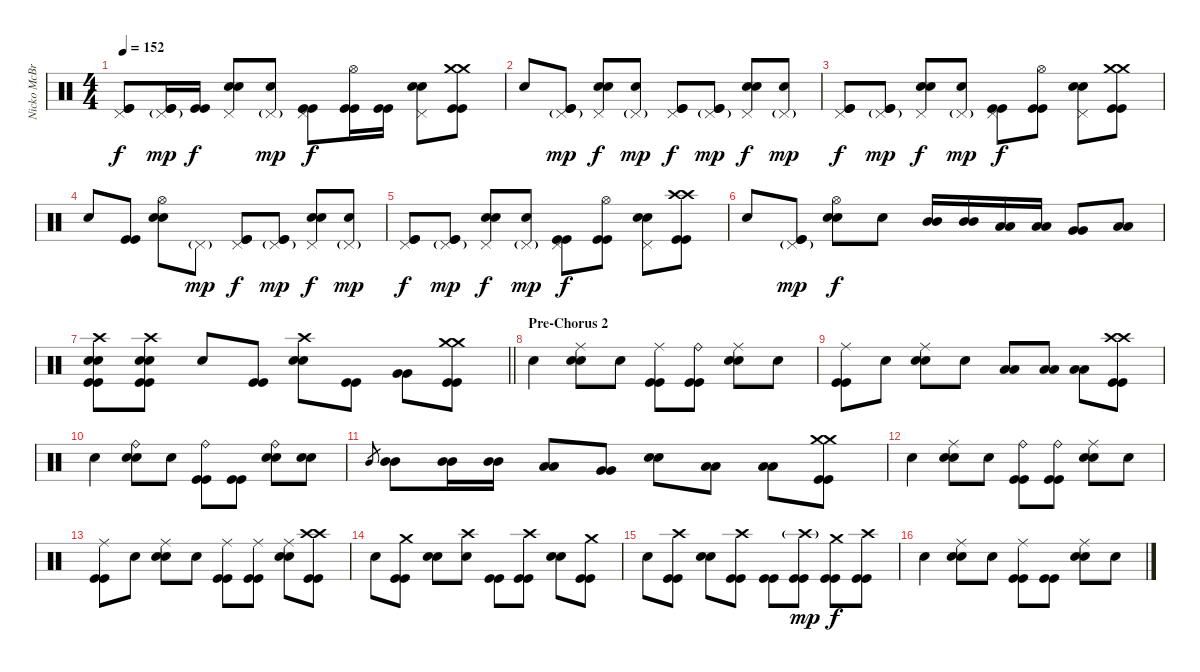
\track ("Nicko McBrain" "Nicko McBr") {instrument percussion}
\staff {score}
\articulation defaults
\ts (4 4)
\tempo 152
\clef neutral
\ks c
("Pedal Hi-Hat (hit)" "Kick (hit)" "Kick (hit)").8{dy f} ("Pedal Hi-Hat (hit)"{g} "Kick (hit)" "Kick (hit)").16{dy mp} ("Kick (hit)" "Kick (hit)").16{dy f} ("Pedal Hi-Hat (hit)" "Electric Snare (hit)" "Electric Snare (hit)").8 ("Pedal Hi-Hat (hit)"{g} "Snare (hit)").8{dy mp} ("Pedal Hi-Hat (hit)" "Kick (hit)" "Kick (hit)").8{dy f} ("Hi-Hat (open)" "Kick (hit)" "Kick (hit)").16 ("Kick (hit)" "Kick (hit)").16 ("Pedal Hi-Hat (hit)" "Electric Snare (hit)" "Electric Snare (hit)").8 ("Crash medium (hit)" "Crash medium (hit)" "Kick (hit)" "Kick (hit)").8 |
"Snare (hit)".8 ("Pedal Hi-Hat (hit)"{g} "Kick (hit)" "Kick (hit)").8{dy mp} ("Pedal Hi-Hat (hit)" "Electric Snare (hit)" "Electric Snare (hit)").8{dy f} ("Pedal Hi-Hat (hit)"{g} "Snare (hit)").8{dy mp} ("Pedal Hi-Hat (hit)" "Kick (hit)" "Kick (hit)").8{dy f} ("Pedal Hi-Hat (hit)"{g} "Kick (hit)" "Kick (hit)").8{dy mp} ("Pedal Hi-Hat (hit)" "Electric Snare (hit)" "Electric Snare (hit)").8{dy f} ("Pedal Hi-Hat (hit)"{g} "Snare (hit)").8{dy mp} |
("Pedal Hi-Hat (hit)" "Kick (hit)" "Kick (hit)").8{dy f} ("Pedal Hi-Hat (hit)"{g} "Kick (hit)" "Kick (hit)").8{dy mp} ("Pedal Hi-Hat (hit)" "Electric Snare (hit)" "Electric Snare (hit)").8{dy f} ("Pedal Hi-Hat (hit)"{g} "Snare (hit)").8{dy mp} ("Pedal Hi-Hat (hit)" "Kick (hit)" "Kick (hit)").8{dy f} ("Hi-Hat (open)" "Kick (hit)" "Kick (hit)").8 ("Pedal Hi-Hat (hit)" "Electric Snare (hit)" "Electric Snare (hit)").8 ("Crash medium (hit)" "Crash medium (hit)" "Kick (hit)" "Kick (hit)").8 |
"Snare (hit)".8 ("Kick (hit)" "Kick (hit)").8 ("Hi-Hat (open)" "Electric Snare (hit)" "Electric Snare (hit)").8 "Pedal Hi-Hat (hit)"{g}.8{dy mp} ("Pedal Hi-Hat (hit)" "Kick (hit)" "Kick (hit)").8{dy f} ("Pedal Hi-Hat (hit)"{g} "Kick (hit)" "Kick (hit)").8{dy mp} ("Pedal Hi-Hat (hit)" "Electric Snare (hit)" "Electric Snare (hit)").8{dy f} ("Pedal Hi-Hat (hit)"{g} "Snare (hit)").8{dy mp} |
("Pedal Hi-Hat (hit)" "Kick (hit)" "Kick (hit)").8{dy f} ("Pedal Hi-Hat (hit)"{g} "Kick (hit)" "Kick (hit)").8{dy mp} ("Pedal Hi-Hat (hit)" "Electric Snare (hit)" "Electric Snare (hit)").8{dy f} ("Pedal Hi-Hat (hit)"{g} "Snare (hit)").8{dy mp} ("Pedal Hi-Hat (hit)" "Kick (hit)" "Kick (hit)").8{dy f} ("Hi-Hat (open)" "Kick (hit)" "Kick (hit)").8 ("Pedal Hi-Hat (hit)" "Electric Snare (hit)" "Electric Snare (hit)").8 ("Crash high (hit)" "Crash high (hit)" "Kick (hit)" "Kick (hit)").8 |
"Snare (hit)".8 ("Pedal Hi-Hat (hit)"{g} "Kick (hit)" "Kick (hit)").8{dy mp} ("Hi-Hat (open)" "Electric Snare (hit)" "Electric Snare (hit)").8{dy f} "Snare (hit)".8 ("Mid Tom (hit)" "Mid Tom (hit)").16 ("Mid Tom (hit)" "Mid Tom (hit)").16 ("Low Tom (hit)" "Low Tom (hit)").16 ("Low Tom (hit)" "Low Tom (hit)").16 ("Very Low Tom (hit)" "Very Low Tom (hit)").8 ("Low Floor Tom (hit)" "Low Floor Tom (hit)").8 |
\barLineRight lightlight
("Crash high (hit)" "Electric Snare (hit)" "Electric Snare (hit)" "Kick (hit)" "Kick (hit)").8 ("Crash high (hit)" "Electric Snare (hit)" "Electric Snare (hit)" "Kick (hit)" "Kick (hit)").8 "Snare (hit)".8 ("Kick (hit)" "Kick (hit)").8 ("Crash high (hit)" "Electric Snare (hit)" "Electric Snare (hit)").8 ("Kick (hit)" "Kick (hit)").8 ("Very Low Tom (hit)" "Very Low Tom (hit)").8 ("Crash medium (hit)" "Crash medium (hit)" "Kick (hit)" "Kick (hit)").8 |
\section ("" "Pre-Chorus 2")
"Snare (hit)".4 ("Ride (middle)" "Electric Snare (hit)" "Electric Snare (hit)").8 "Snare (hit)".8 ("Ride (middle)" "Kick (hit)" "Kick (hit)").8 ("Ride (bell)" "Kick (hit)" "Kick (hit)").8 ("Ride (middle)" "Electric Snare (hit)" "Electric Snare (hit)").8 "Snare (hit)".8 |
("Ride (middle)" "Kick (hit)" "Kick (hit)").8 "Snare (hit)".8 ("Ride (middle)" "Electric Snare (hit)" "Electric Snare (hit)").8 "Snare (hit)".8 ("Low Tom (hit)" "Low Tom (hit)").8 ("Low Tom (hit)" "Low Tom (hit)").8 ("Low Tom (hit)" "Low Tom (hit)").8 ("Crash high (hit)" "Crash high (hit)" "Kick (hit)" "Kick (hit)").8 |
"Snare (hit)".4 ("Ride (bell)" "Electric Snare (hit)" "Electric Snare (hit)").8 "Snare (hit)".8 ("Ride (bell)" "Kick (hit)" "Kick (hit)").8 ("Kick (hit)" "Kick (hit)").8 ("Ride (bell)" "Electric Snare (hit)" "Electric Snare (hit)").8 ("Snare (hit)" "Snare (hit)").8 |
"Mid Tom (hit)".8{gr} ("Mid Tom (hit)" "Mid Tom (hit)").8 ("Mid Tom (hit)" "Mid Tom (hit)").16 ("Mid Tom (hit)" "Mid Tom (hit)").16 ("Low Tom (hit)" "Low Tom (hit)").8 ("Very Low Tom (hit)" "Very Low Tom (hit)").8 ("Electric Snare (hit)" "Electric Snare (hit)").8 ("Low Floor Tom (hit)" "Low Floor Tom (hit)").8 ("Low Floor Tom (hit)" "Low Floor Tom (hit)").8 ("Crash medium (hit)" "Crash medium (hit)" "Kick (hit)" "Kick (hit)").8 |
"Snare (hit)".4 ("Ride (middle)" "Electric Snare (hit)" "Electric Snare (hit)").8 "Snare (hit)".8 ("Ride (bell)" "Kick (hit)" "Kick (hit)").8 ("Ride (bell)" "Kick (hit)" "Kick (hit)").8 ("Ride (middle)" "Electric Snare (hit)" "Electric Snare (hit)").8 "Snare (hit)".8 |
("Ride (middle)" "Kick (hit)" "Kick (hit)").8 "Snare (hit)".8 ("Ride (middle)" "Electric Snare (hit)" "Electric Snare (hit)").8 "Snare (hit)".8 ("Ride (middle)" "Kick (hit)" "Kick (hit)").8 ("Ride (middle)" "Kick (hit)" "Kick (hit)").8 ("Ride (middle)" "Electric Snare (hit)" "Electric Snare (hit)").8 ("Crash high (hit)" "Crash high (hit)" "Kick (hit)" "Kick (hit)").8 |
"Snare (hit)".8 ("Crash medium (hit)" "Kick (hit)" "Kick (hit)").8 ("Electric Snare (hit)" "Electric Snare (hit)").8 ("Crash high (hit)" "Snare (hit)").8 ("Kick (hit)" "Kick (hit)").8 ("Crash high (hit)" "Kick (hit)" "Kick (hit)").8 ("Electric Snare (hit)" "Electric Snare (hit)").8 ("Crash medium (hit)" "Kick (hit)" "Kick (hit)").8 |
"Snare (hit)".8 ("Crash high (hit)" "Kick (hit)" "Kick (hit)").8 ("Electric Snare (hit)" "Electric Snare (hit)").8 ("Crash high (hit)" "Kick (hit)" "Kick (hit)").8 ("Kick (hit)" "Kick (hit)").8 ("Crash high (hit)"{g} "Kick (hit)" "Kick (hit)").8{dy mp} ("Crash medium (hit)" "Kick (hit)" "Kick (hit)").8{dy f} ("Crash high (hit)" "Kick (hit)" "Kick (hit)").8 |
"Snare (hit)".4 ("Ride (middle)" "Electric Snare (hit)" "Electric Snare (hit)").8 "Snare (hit)".8 ("Ride (middle)" "Kick (hit)" "Kick (hit)").8 ("Kick (hit)" "Kick (hit)").8 ("Ride (middle)" "Electric Snare (hit)" "Electric Snare (hit)").8 "Snare (hit)".8
